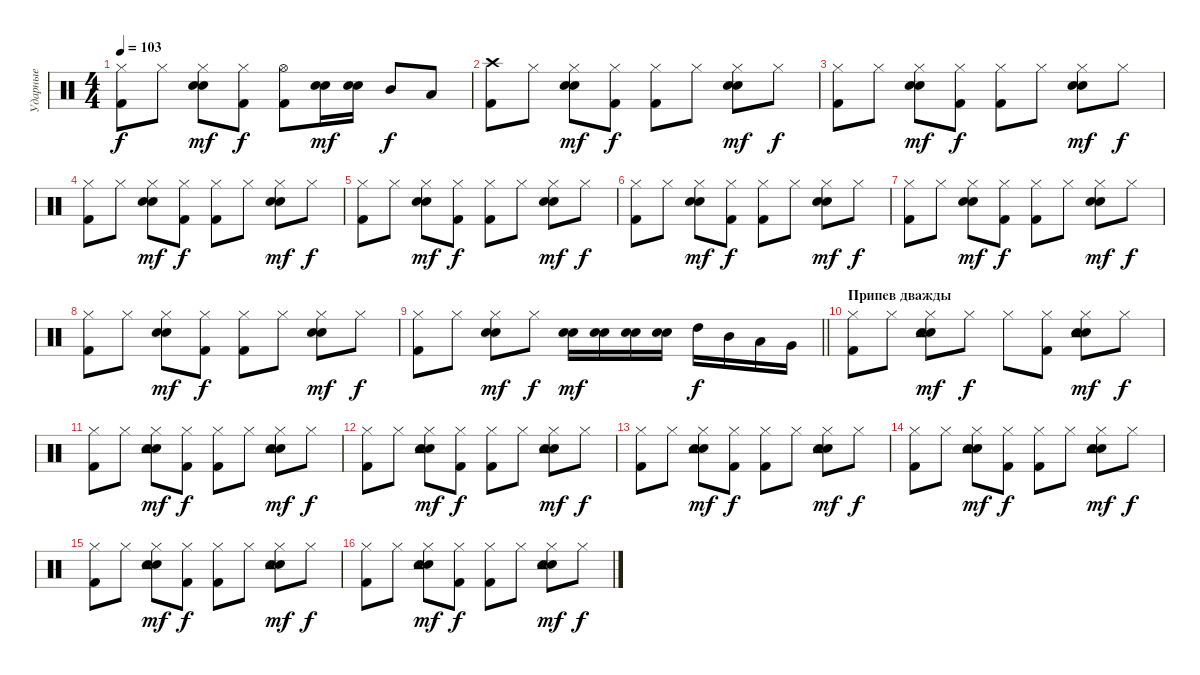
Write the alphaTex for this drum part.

\track ("Ударные" "Ударные") {instrument percussion}
\staff {score}
\articulation defaults
\ts (4 4)
\tempo 103
\clef neutral
\ks c
("Hi-Hat (closed)" "Kick (hit) 2").8{dy f} "Hi-Hat (closed)".8 ("Hi-Hat (closed)" "Electric Snare (hit)" "Snare (hit) 2").8{dy mf} ("Hi-Hat (closed)" "Kick (hit) 2").8{dy f} ("Hi-Hat (open)" "Kick (hit) 2").8 ("Electric Snare (hit)" "Snare (hit) 2").16{dy mf} ("Electric Snare (hit)" "Snare (hit) 2").16 "Mid Tom (hit)".8{dy f} "Low Tom (hit)".8 |
("Crash high (hit)" "Kick (hit) 2").8 "Hi-Hat (closed)".8 ("Hi-Hat (closed)" "Electric Snare (hit)" "Snare (hit) 2").8{dy mf} ("Hi-Hat (closed)" "Kick (hit) 2").8{dy f} ("Hi-Hat (closed)" "Kick (hit) 2").8 "Hi-Hat (closed)".8 ("Hi-Hat (closed)" "Electric Snare (hit)" "Snare (hit) 2").8{dy mf} "Hi-Hat (closed)".8{dy f} |
("Hi-Hat (closed)" "Kick (hit) 2").8 "Hi-Hat (closed)".8 ("Hi-Hat (closed)" "Electric Snare (hit)" "Snare (hit) 2").8{dy mf} ("Hi-Hat (closed)" "Kick (hit) 2").8{dy f} ("Hi-Hat (closed)" "Kick (hit) 2").8 "Hi-Hat (closed)".8 ("Hi-Hat (closed)" "Electric Snare (hit)" "Snare (hit) 2").8{dy mf} "Hi-Hat (closed)".8{dy f} |
("Hi-Hat (closed)" "Kick (hit) 2").8 "Hi-Hat (closed)".8 ("Hi-Hat (closed)" "Electric Snare (hit)" "Snare (hit) 2").8{dy mf} ("Hi-Hat (closed)" "Kick (hit) 2").8{dy f} ("Hi-Hat (closed)" "Kick (hit) 2").8 "Hi-Hat (closed)".8 ("Hi-Hat (closed)" "Electric Snare (hit)" "Snare (hit) 2").8{dy mf} "Hi-Hat (closed)".8{dy f} |
("Hi-Hat (closed)" "Kick (hit) 2").8 "Hi-Hat (closed)".8 ("Hi-Hat (closed)" "Electric Snare (hit)" "Snare (hit) 2").8{dy mf} ("Hi-Hat (closed)" "Kick (hit) 2").8{dy f} ("Hi-Hat (closed)" "Kick (hit) 2").8 "Hi-Hat (closed)".8 ("Hi-Hat (closed)" "Electric Snare (hit)" "Snare (hit) 2").8{dy mf} "Hi-Hat (closed)".8{dy f} |
("Hi-Hat (closed)" "Kick (hit) 2").8 "Hi-Hat (closed)".8 ("Hi-Hat (closed)" "Electric Snare (hit)" "Snare (hit) 2").8{dy mf} ("Hi-Hat (closed)" "Kick (hit) 2").8{dy f} ("Hi-Hat (closed)" "Kick (hit) 2").8 "Hi-Hat (closed)".8 ("Hi-Hat (closed)" "Electric Snare (hit)" "Snare (hit) 2").8{dy mf} "Hi-Hat (closed)".8{dy f} |
("Hi-Hat (closed)" "Kick (hit) 2").8 "Hi-Hat (closed)".8 ("Hi-Hat (closed)" "Electric Snare (hit)" "Snare (hit) 2").8{dy mf} ("Hi-Hat (closed)" "Kick (hit) 2").8{dy f} ("Hi-Hat (closed)" "Kick (hit) 2").8 "Hi-Hat (closed)".8 ("Hi-Hat (closed)" "Electric Snare (hit)" "Snare (hit) 2").8{dy mf} "Hi-Hat (closed)".8{dy f} |
("Hi-Hat (closed)" "Kick (hit) 2").8 "Hi-Hat (closed)".8 ("Hi-Hat (closed)" "Electric Snare (hit)" "Snare (hit) 2").8{dy mf} ("Hi-Hat (closed)" "Kick (hit) 2").8{dy f} ("Hi-Hat (closed)" "Kick (hit) 2").8 "Hi-Hat (closed)".8 ("Hi-Hat (closed)" "Electric Snare (hit)" "Snare (hit) 2").8{dy mf} "Hi-Hat (closed)".8{dy f} |
\barLineRight lightlight
("Hi-Hat (closed)" "Kick (hit) 2").8 "Hi-Hat (closed)".8 ("Hi-Hat (closed)" "Electric Snare (hit)" "Snare (hit) 2").8{dy mf} "Hi-Hat (closed)".8{dy f} ("Electric Snare (hit)" "Snare (hit) 2").16{dy mf} ("Electric Snare (hit)" "Snare (hit) 2").16 ("Electric Snare (hit)" "Snare (hit) 2").16 ("Electric Snare (hit)" "Snare (hit) 2").16 "High Tom (hit)".16{dy f} "Mid Tom (hit)".16 "Low Tom (hit)".16 "Very Low Tom (hit)".16 |
\section ("" "Припев дважды")
("Hi-Hat (closed)" "Kick (hit) 2").8 "Hi-Hat (closed)".8 ("Hi-Hat (closed)" "Electric Snare (hit)" "Snare (hit) 2" "Tambourine (hit)").8{dy mf} "Hi-Hat (closed)".8{dy f} "Hi-Hat (closed)".8 ("Hi-Hat (closed)" "Kick (hit) 2").8 ("Hi-Hat (closed)" "Electric Snare (hit)" "Snare (hit) 2" "Tambourine (hit)").8{dy mf} "Hi-Hat (closed)".8{dy f} |
("Hi-Hat (closed)" "Kick (hit) 2").8 "Hi-Hat (closed)".8 ("Hi-Hat (closed)" "Electric Snare (hit)" "Snare (hit) 2" "Tambourine (hit)").8{dy mf} ("Hi-Hat (closed)" "Kick (hit) 2").8{dy f} ("Hi-Hat (closed)" "Kick (hit) 2").8 "Hi-Hat (closed)".8 ("Hi-Hat (closed)" "Electric Snare (hit)" "Snare (hit) 2" "Tambourine (hit)").8{dy mf} "Hi-Hat (closed)".8{dy f} |
("Hi-Hat (closed)" "Kick (hit) 2").8 "Hi-Hat (closed)".8 ("Hi-Hat (closed)" "Electric Snare (hit)" "Snare (hit) 2" "Tambourine (hit)").8{dy mf} ("Hi-Hat (closed)" "Kick (hit) 2").8{dy f} ("Hi-Hat (closed)" "Kick (hit) 2").8 "Hi-Hat (closed)".8 ("Hi-Hat (closed)" "Electric Snare (hit)" "Snare (hit) 2" "Tambourine (hit)").8{dy mf} "Hi-Hat (closed)".8{dy f} |
("Hi-Hat (closed)" "Kick (hit) 2").8 "Hi-Hat (closed)".8 ("Hi-Hat (closed)" "Electric Snare (hit)" "Snare (hit) 2" "Tambourine (hit)").8{dy mf} ("Hi-Hat (closed)" "Kick (hit) 2").8{dy f} ("Hi-Hat (closed)" "Kick (hit) 2").8 "Hi-Hat (closed)".8 ("Hi-Hat (closed)" "Electric Snare (hit)" "Snare (hit) 2" "Tambourine (hit)").8{dy mf} "Hi-Hat (closed)".8{dy f} |
("Hi-Hat (closed)" "Kick (hit) 2").8 "Hi-Hat (closed)".8 ("Hi-Hat (closed)" "Electric Snare (hit)" "Snare (hit) 2" "Tambourine (hit)").8{dy mf} ("Hi-Hat (closed)" "Kick (hit) 2").8{dy f} ("Hi-Hat (closed)" "Kick (hit) 2").8 "Hi-Hat (closed)".8 ("Hi-Hat (closed)" "Electric Snare (hit)" "Snare (hit) 2" "Tambourine (hit)").8{dy mf} "Hi-Hat (closed)".8{dy f} |
("Hi-Hat (closed)" "Kick (hit) 2").8 "Hi-Hat (closed)".8 ("Hi-Hat (closed)" "Electric Snare (hit)" "Snare (hit) 2" "Tambourine (hit)").8{dy mf} ("Hi-Hat (closed)" "Kick (hit) 2").8{dy f} ("Hi-Hat (closed)" "Kick (hit) 2").8 "Hi-Hat (closed)".8 ("Hi-Hat (closed)" "Electric Snare (hit)" "Snare (hit) 2" "Tambourine (hit)").8{dy mf} "Hi-Hat (closed)".8{dy f} |
("Hi-Hat (closed)" "Kick (hit) 2").8 "Hi-Hat (closed)".8 ("Hi-Hat (closed)" "Electric Snare (hit)" "Snare (hit) 2" "Tambourine (hit)").8{dy mf} ("Hi-Hat (closed)" "Kick (hit) 2").8{dy f} ("Hi-Hat (closed)" "Kick (hit) 2").8 "Hi-Hat (closed)".8 ("Hi-Hat (closed)" "Electric Snare (hit)" "Snare (hit) 2" "Tambourine (hit)").8{dy mf} "Hi-Hat (closed)".8{dy f}
